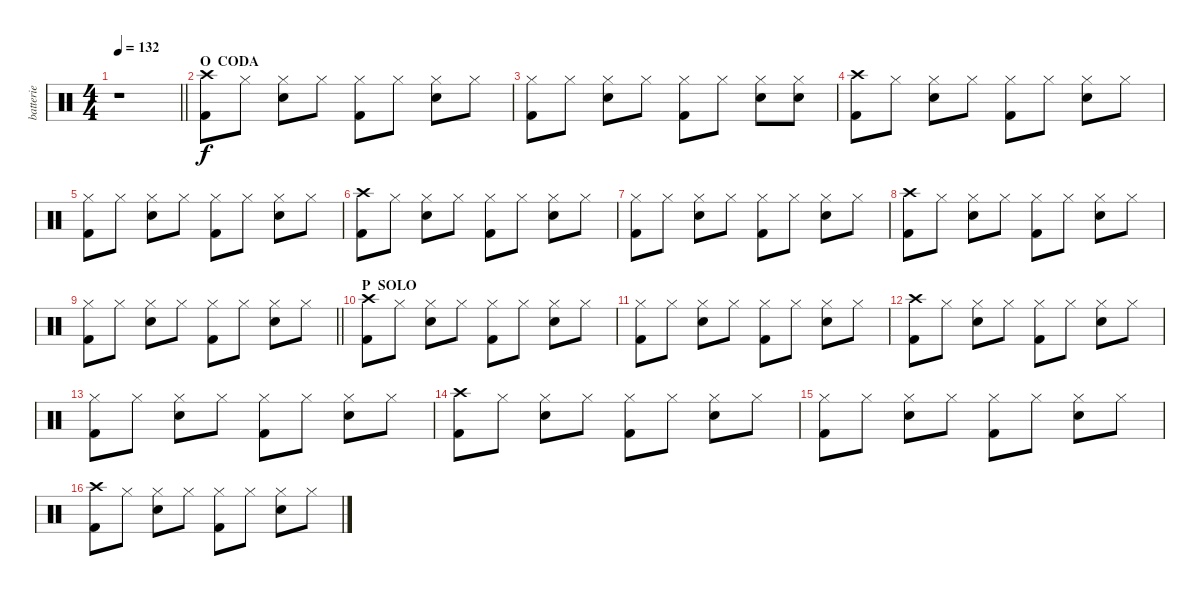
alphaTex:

\track ("batterie" "batterie") {instrument percussion}
\staff {score}
\articulation defaults
\ts (4 4)
\tempo 132
\clef neutral
\barLineRight lightlight
\ks c
r.1{dy f} |
\section ("" "O  CODA")
("Crash high (hit)" "Kick (hit) 2").8 "Hi-Hat (closed)".8 ("Hi-Hat (closed)" "Electric Snare (hit)").8 "Hi-Hat (closed)".8 ("Hi-Hat (closed)" "Kick (hit) 2").8 "Hi-Hat (closed)".8 ("Hi-Hat (closed)" "Electric Snare (hit)").8 "Hi-Hat (closed)".8 |
("Hi-Hat (closed)" "Kick (hit) 2").8 "Hi-Hat (closed)".8 ("Hi-Hat (closed)" "Electric Snare (hit)").8 "Hi-Hat (closed)".8 ("Hi-Hat (closed)" "Kick (hit) 2").8 "Hi-Hat (closed)".8 ("Hi-Hat (closed)" "Electric Snare (hit)").8 ("Hi-Hat (closed)" "Electric Snare (hit)").8 |
("Crash high (hit)" "Kick (hit) 2").8 "Hi-Hat (closed)".8 ("Hi-Hat (closed)" "Electric Snare (hit)").8 "Hi-Hat (closed)".8 ("Hi-Hat (closed)" "Kick (hit) 2").8 "Hi-Hat (closed)".8 ("Hi-Hat (closed)" "Electric Snare (hit)").8 "Hi-Hat (closed)".8 |
("Hi-Hat (closed)" "Kick (hit) 2").8 "Hi-Hat (closed)".8 ("Hi-Hat (closed)" "Electric Snare (hit)").8 "Hi-Hat (closed)".8 ("Hi-Hat (closed)" "Kick (hit) 2").8 "Hi-Hat (closed)".8 ("Hi-Hat (closed)" "Electric Snare (hit)").8 "Hi-Hat (closed)".8 |
("Crash high (hit)" "Kick (hit) 2").8 "Hi-Hat (closed)".8 ("Hi-Hat (closed)" "Electric Snare (hit)").8 "Hi-Hat (closed)".8 ("Hi-Hat (closed)" "Kick (hit) 2").8 "Hi-Hat (closed)".8 ("Hi-Hat (closed)" "Electric Snare (hit)").8 "Hi-Hat (closed)".8 |
("Hi-Hat (closed)" "Kick (hit) 2").8 "Hi-Hat (closed)".8 ("Hi-Hat (closed)" "Electric Snare (hit)").8 "Hi-Hat (closed)".8 ("Hi-Hat (closed)" "Kick (hit) 2").8 "Hi-Hat (closed)".8 ("Hi-Hat (closed)" "Electric Snare (hit)").8 "Hi-Hat (closed)".8 |
("Crash high (hit)" "Kick (hit) 2").8 "Hi-Hat (closed)".8 ("Hi-Hat (closed)" "Electric Snare (hit)").8 "Hi-Hat (closed)".8 ("Hi-Hat (closed)" "Kick (hit) 2").8 "Hi-Hat (closed)".8 ("Hi-Hat (closed)" "Electric Snare (hit)").8 "Hi-Hat (closed)".8 |
\barLineRight lightlight
("Hi-Hat (closed)" "Kick (hit) 2").8 "Hi-Hat (closed)".8 ("Hi-Hat (closed)" "Electric Snare (hit)").8 "Hi-Hat (closed)".8 ("Hi-Hat (closed)" "Kick (hit) 2").8 "Hi-Hat (closed)".8 ("Hi-Hat (closed)" "Electric Snare (hit)").8 "Hi-Hat (closed)".8 |
\section ("" "P  SOLO")
("Crash high (hit)" "Kick (hit) 2").8 "Hi-Hat (closed)".8 ("Hi-Hat (closed)" "Electric Snare (hit)").8 "Hi-Hat (closed)".8 ("Hi-Hat (closed)" "Kick (hit) 2").8 "Hi-Hat (closed)".8 ("Hi-Hat (closed)" "Electric Snare (hit)").8 "Hi-Hat (closed)".8 |
("Hi-Hat (closed)" "Kick (hit) 2").8 "Hi-Hat (closed)".8 ("Hi-Hat (closed)" "Electric Snare (hit)").8 "Hi-Hat (closed)".8 ("Hi-Hat (closed)" "Kick (hit) 2").8 "Hi-Hat (closed)".8 ("Hi-Hat (closed)" "Electric Snare (hit)").8 "Hi-Hat (closed)".8 |
("Crash high (hit)" "Kick (hit) 2").8 "Hi-Hat (closed)".8 ("Hi-Hat (closed)" "Electric Snare (hit)").8 "Hi-Hat (closed)".8 ("Hi-Hat (closed)" "Kick (hit) 2").8 "Hi-Hat (closed)".8 ("Hi-Hat (closed)" "Electric Snare (hit)").8 "Hi-Hat (closed)".8 |
("Hi-Hat (closed)" "Kick (hit) 2").8 "Hi-Hat (closed)".8 ("Hi-Hat (closed)" "Electric Snare (hit)").8 "Hi-Hat (closed)".8 ("Hi-Hat (closed)" "Kick (hit) 2").8 "Hi-Hat (closed)".8 ("Hi-Hat (closed)" "Electric Snare (hit)").8 "Hi-Hat (closed)".8 |
("Crash high (hit)" "Kick (hit) 2").8 "Hi-Hat (closed)".8 ("Hi-Hat (closed)" "Electric Snare (hit)").8 "Hi-Hat (closed)".8 ("Hi-Hat (closed)" "Kick (hit) 2").8 "Hi-Hat (closed)".8 ("Hi-Hat (closed)" "Electric Snare (hit)").8 "Hi-Hat (closed)".8 |
("Hi-Hat (closed)" "Kick (hit) 2").8 "Hi-Hat (closed)".8 ("Hi-Hat (closed)" "Electric Snare (hit)").8 "Hi-Hat (closed)".8 ("Hi-Hat (closed)" "Kick (hit) 2").8 "Hi-Hat (closed)".8 ("Hi-Hat (closed)" "Electric Snare (hit)").8 "Hi-Hat (closed)".8 |
("Crash high (hit)" "Kick (hit) 2").8 "Hi-Hat (closed)".8 ("Hi-Hat (closed)" "Electric Snare (hit)").8 "Hi-Hat (closed)".8 ("Hi-Hat (closed)" "Kick (hit) 2").8 "Hi-Hat (closed)".8 ("Hi-Hat (closed)" "Electric Snare (hit)").8 "Hi-Hat (closed)".8
